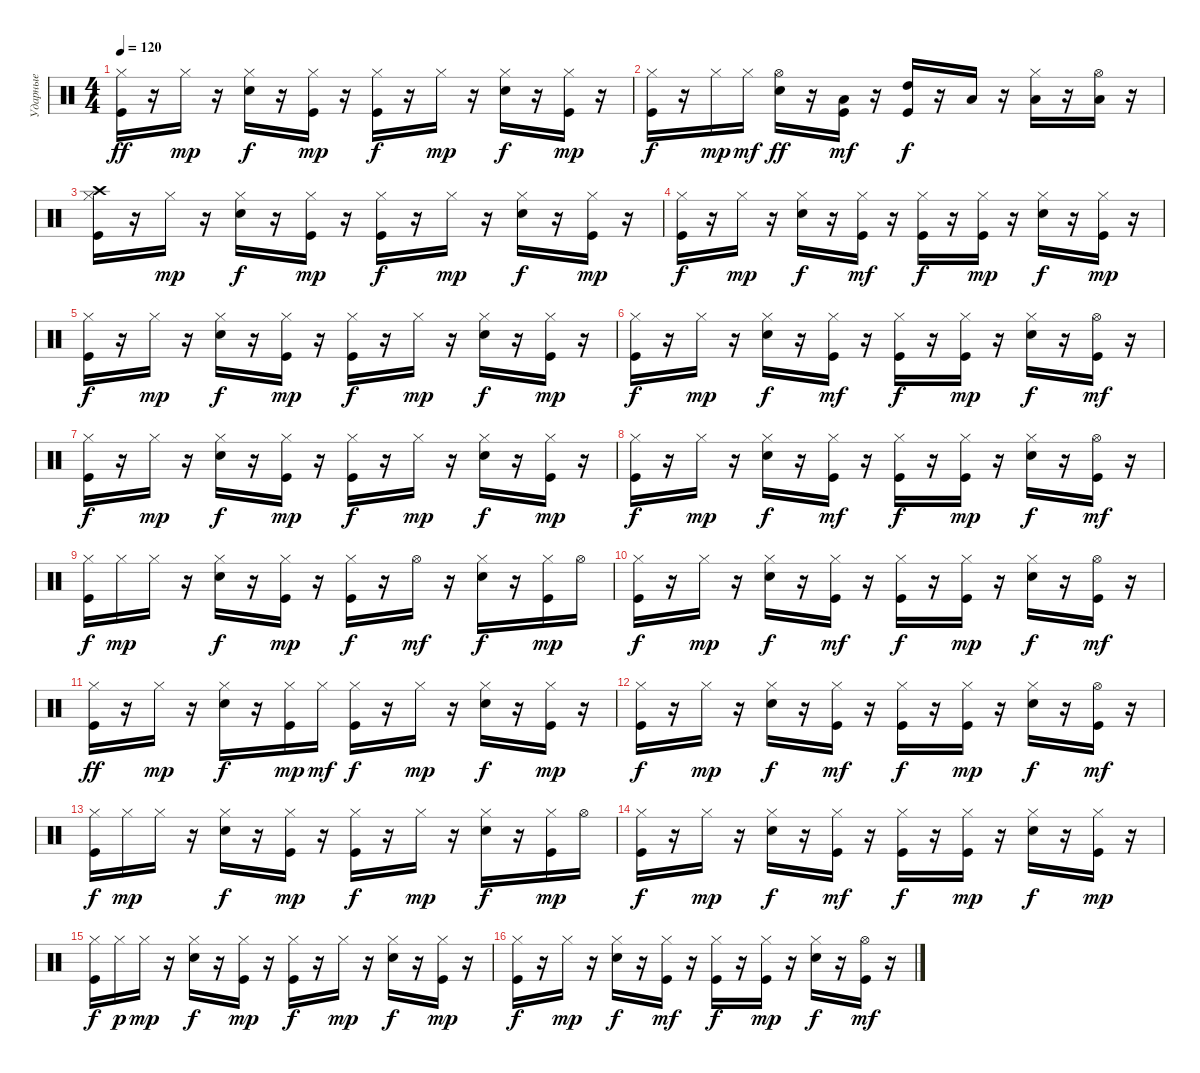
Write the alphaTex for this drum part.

\track ("Ударные" "Ударные") {instrument percussion}
\staff {score}
\articulation defaults
\ts (4 4)
\tempo 120
\clef neutral
\ks c
("Kick (hit)" "Hi-Hat (closed)").16{dy ff} r.16 "Hi-Hat (closed)".16{dy mp} r.16 ("Snare (hit) 2" "Hi-Hat (closed)").16{dy f} r.16 ("Kick (hit)" "Hi-Hat (closed)").16{dy mp} r.16 ("Kick (hit)" "Hi-Hat (closed)").16{dy f} r.16 "Hi-Hat (closed)".16{dy mp} r.16 ("Snare (hit) 2" "Hi-Hat (closed)").16{dy f} r.16 ("Kick (hit)" "Hi-Hat (closed)").16{dy mp} r.16 |
("Kick (hit)" "Hi-Hat (closed)").16{dy f} r.16 "Hi-Hat (closed)".16{dy mp} "Hi-Hat (closed)".16{dy mf} ("Snare (hit) 2" "Hi-Hat (open)").16{dy ff} r.16 ("Kick (hit)" "Low Tom (hit)").16{dy mf} r.16 ("Kick (hit)" "High Tom (hit)").16{dy f} r.16 "Low Tom (hit)".16 r.16 ("Hi-Hat (closed)" "Low Tom (hit)").16 r.16 ("Hi-Hat (open)" "Low Floor Tom (hit)").16 r.16 |
("Kick (hit)" "Hi-Hat (closed)" "Crash high (hit)").16 r.16 "Hi-Hat (closed)".16{dy mp} r.16 ("Snare (hit) 2" "Hi-Hat (closed)").16{dy f} r.16 ("Kick (hit)" "Hi-Hat (closed)").16{dy mp} r.16 ("Kick (hit)" "Hi-Hat (closed)").16{dy f} r.16 "Hi-Hat (closed)".16{dy mp} r.16 ("Snare (hit) 2" "Hi-Hat (closed)").16{dy f} r.16 ("Kick (hit)" "Hi-Hat (closed)").16{dy mp} r.16 |
("Kick (hit)" "Hi-Hat (closed)").16{dy f} r.16 "Hi-Hat (closed)".16{dy mp} r.16 ("Snare (hit) 2" "Hi-Hat (closed)").16{dy f} r.16 ("Kick (hit)" "Hi-Hat (closed)").16{dy mf} r.16 ("Kick (hit)" "Hi-Hat (closed)").16{dy f} r.16 ("Kick (hit)" "Hi-Hat (closed)").16{dy mp} r.16 ("Snare (hit) 2" "Hi-Hat (closed)").16{dy f} r.16 ("Kick (hit)" "Hi-Hat (closed)").16{dy mp} r.16 |
("Kick (hit)" "Hi-Hat (closed)").16{dy f} r.16 "Hi-Hat (closed)".16{dy mp} r.16 ("Snare (hit) 2" "Hi-Hat (closed)").16{dy f} r.16 ("Kick (hit)" "Hi-Hat (closed)").16{dy mp} r.16 ("Kick (hit)" "Hi-Hat (closed)").16{dy f} r.16 "Hi-Hat (closed)".16{dy mp} r.16 ("Snare (hit) 2" "Hi-Hat (closed)").16{dy f} r.16 ("Kick (hit)" "Hi-Hat (closed)").16{dy mp} r.16 |
("Kick (hit)" "Hi-Hat (closed)").16{dy f} r.16 "Hi-Hat (closed)".16{dy mp} r.16 ("Snare (hit) 2" "Hi-Hat (closed)").16{dy f} r.16 ("Kick (hit)" "Hi-Hat (closed)").16{dy mf} r.16 ("Kick (hit)" "Hi-Hat (closed)").16{dy f} r.16 ("Kick (hit)" "Hi-Hat (closed)").16{dy mp} r.16 ("Snare (hit) 2" "Hi-Hat (closed)").16{dy f} r.16 ("Kick (hit)" "Hi-Hat (open)").16{dy mf} r.16 |
("Kick (hit)" "Hi-Hat (closed)").16{dy f} r.16 "Hi-Hat (closed)".16{dy mp} r.16 ("Snare (hit) 2" "Hi-Hat (closed)").16{dy f} r.16 ("Kick (hit)" "Hi-Hat (closed)").16{dy mp} r.16 ("Kick (hit)" "Hi-Hat (closed)").16{dy f} r.16 "Hi-Hat (closed)".16{dy mp} r.16 ("Snare (hit) 2" "Hi-Hat (closed)").16{dy f} r.16 ("Kick (hit)" "Hi-Hat (closed)").16{dy mp} r.16 |
("Kick (hit)" "Hi-Hat (closed)").16{dy f} r.16 "Hi-Hat (closed)".16{dy mp} r.16 ("Snare (hit) 2" "Hi-Hat (closed)").16{dy f} r.16 ("Kick (hit)" "Hi-Hat (closed)").16{dy mf} r.16 ("Kick (hit)" "Hi-Hat (closed)").16{dy f} r.16 ("Kick (hit)" "Hi-Hat (closed)").16{dy mp} r.16 ("Snare (hit) 2" "Hi-Hat (closed)").16{dy f} r.16 ("Kick (hit)" "Hi-Hat (open)").16{dy mf} r.16 |
("Kick (hit)" "Hi-Hat (closed)").16{dy f} "Hi-Hat (closed)".16{dy mp} "Hi-Hat (closed)".16 r.16 ("Snare (hit) 2" "Hi-Hat (closed)").16{dy f} r.16 ("Kick (hit)" "Hi-Hat (closed)").16{dy mp} r.16 ("Kick (hit)" "Hi-Hat (closed)").16{dy f} r.16 "Hi-Hat (open)".16{dy mf} r.16 ("Snare (hit) 2" "Hi-Hat (closed)").16{dy f} r.16 ("Kick (hit)" "Hi-Hat (closed)").16{dy mp} "Hi-Hat (open)".16 |
("Kick (hit)" "Hi-Hat (closed)").16{dy f} r.16 "Hi-Hat (closed)".16{dy mp} r.16 ("Snare (hit) 2" "Hi-Hat (closed)").16{dy f} r.16 ("Kick (hit)" "Hi-Hat (closed)").16{dy mf} r.16 ("Kick (hit)" "Hi-Hat (closed)").16{dy f} r.16 ("Kick (hit)" "Hi-Hat (closed)").16{dy mp} r.16 ("Snare (hit) 2" "Hi-Hat (closed)").16{dy f} r.16 ("Kick (hit)" "Hi-Hat (open)").16{dy mf} r.16 |
("Kick (hit)" "Hi-Hat (closed)").16{dy ff} r.16 "Hi-Hat (closed)".16{dy mp} r.16 ("Snare (hit) 2" "Hi-Hat (closed)").16{dy f} r.16 ("Kick (hit)" "Hi-Hat (closed)").16{dy mp} "Hi-Hat (closed)".16{dy mf} ("Kick (hit)" "Hi-Hat (closed)").16{dy f} r.16 "Hi-Hat (closed)".16{dy mp} r.16 ("Snare (hit) 2" "Hi-Hat (closed)").16{dy f} r.16 ("Kick (hit)" "Hi-Hat (closed)").16{dy mp} r.16 |
("Kick (hit)" "Hi-Hat (closed)").16{dy f} r.16 "Hi-Hat (closed)".16{dy mp} r.16 ("Snare (hit) 2" "Hi-Hat (closed)").16{dy f} r.16 ("Kick (hit)" "Hi-Hat (closed)").16{dy mf} r.16 ("Kick (hit)" "Hi-Hat (closed)").16{dy f} r.16 ("Kick (hit)" "Hi-Hat (closed)").16{dy mp} r.16 ("Snare (hit) 2" "Hi-Hat (closed)").16{dy f} r.16 ("Kick (hit)" "Hi-Hat (open)").16{dy mf} r.16 |
("Kick (hit)" "Hi-Hat (closed)").16{dy f} "Hi-Hat (closed)".16{dy mp} "Hi-Hat (closed)".16 r.16 ("Snare (hit) 2" "Hi-Hat (closed)").16{dy f} r.16 ("Kick (hit)" "Hi-Hat (closed)").16{dy mp} r.16 ("Kick (hit)" "Hi-Hat (closed)").16{dy f} r.16 "Hi-Hat (closed)".16{dy mp} r.16 ("Snare (hit) 2" "Hi-Hat (closed)").16{dy f} r.16 ("Kick (hit)" "Hi-Hat (closed)").16{dy mp} "Hi-Hat (open)".16 |
("Kick (hit)" "Hi-Hat (closed)").16{dy f} r.16 "Hi-Hat (closed)".16{dy mp} r.16 ("Snare (hit) 2" "Hi-Hat (closed)").16{dy f} r.16 ("Kick (hit)" "Hi-Hat (closed)").16{dy mf} r.16 ("Kick (hit)" "Hi-Hat (closed)").16{dy f} r.16 ("Kick (hit)" "Hi-Hat (closed)").16{dy mp} r.16 ("Snare (hit) 2" "Hi-Hat (closed)").16{dy f} r.16 ("Kick (hit)" "Hi-Hat (closed)").16{dy mp} r.16 |
("Kick (hit)" "Hi-Hat (closed)").16{dy f} "Hi-Hat (closed)".16{dy p} "Hi-Hat (closed)".16{dy mp} r.16 ("Snare (hit) 2" "Hi-Hat (closed)").16{dy f} r.16 ("Kick (hit)" "Hi-Hat (closed)").16{dy mp} r.16 ("Kick (hit)" "Hi-Hat (closed)").16{dy f} r.16 "Hi-Hat (closed)".16{dy mp} r.16 ("Snare (hit) 2" "Hi-Hat (closed)").16{dy f} r.16 ("Kick (hit)" "Hi-Hat (closed)").16{dy mp} r.16 |
("Kick (hit)" "Hi-Hat (closed)").16{dy f} r.16 "Hi-Hat (closed)".16{dy mp} r.16 ("Snare (hit) 2" "Hi-Hat (closed)").16{dy f} r.16 ("Kick (hit)" "Hi-Hat (closed)").16{dy mf} r.16 ("Kick (hit)" "Hi-Hat (closed)").16{dy f} r.16 ("Kick (hit)" "Hi-Hat (closed)").16{dy mp} r.16 ("Snare (hit) 2" "Hi-Hat (closed)").16{dy f} r.16 ("Kick (hit)" "Hi-Hat (open)").16{dy mf} r.16
